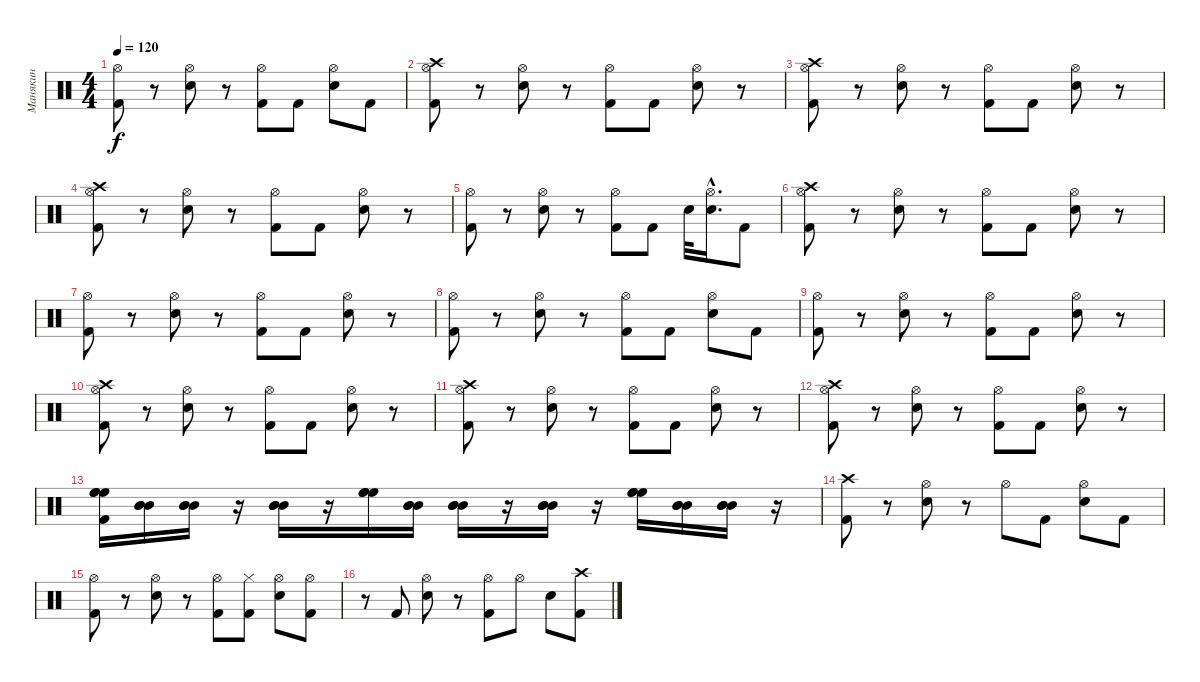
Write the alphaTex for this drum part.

\track ("Манякин" "Манякин") {instrument percussion}
\staff {score}
\articulation defaults
\ts (4 4)
\tempo 120
\clef neutral
\ks c
("Hi-Hat (open)" "Kick (hit) 2").8{dy f} r.8 ("Hi-Hat (open)" "Electric Snare (hit)").8 r.8 ("Hi-Hat (open)" "Kick (hit) 2").8 "Kick (hit) 2".8 ("Hi-Hat (open)" "Electric Snare (hit)").8 "Kick (hit) 2".8 |
("Crash high (hit)" "Hi-Hat (open)" "Kick (hit) 2").8 r.8 ("Hi-Hat (open)" "Electric Snare (hit)").8 r.8 ("Hi-Hat (open)" "Kick (hit) 2").8 "Kick (hit) 2".8 ("Hi-Hat (open)" "Electric Snare (hit)").8 r.8 |
("Crash high (hit)" "Hi-Hat (open)" "Kick (hit) 2").8 r.8 ("Hi-Hat (open)" "Electric Snare (hit)").8 r.8 ("Hi-Hat (open)" "Kick (hit) 2").8 "Kick (hit) 2".8 ("Hi-Hat (open)" "Electric Snare (hit)").8 r.8 |
("Crash high (hit)" "Hi-Hat (open)" "Kick (hit) 2").8 r.8 ("Hi-Hat (open)" "Electric Snare (hit)").8 r.8 ("Hi-Hat (open)" "Kick (hit) 2").8 "Kick (hit) 2".8 ("Hi-Hat (open)" "Electric Snare (hit)").8 r.8 |
("Hi-Hat (open)" "Kick (hit) 2").8 r.8 ("Hi-Hat (open)" "Electric Snare (hit)").8 r.8 ("Hi-Hat (open)" "Kick (hit) 2").8 "Kick (hit) 2".8 "Electric Snare (hit)".32 ("Hi-Hat (open)"{hac} "Electric Snare (hit)"{hac}).16{d} "Kick (hit) 2".8 |
("Crash high (hit)" "Hi-Hat (open)" "Kick (hit) 2").8 r.8 ("Hi-Hat (open)" "Electric Snare (hit)").8 r.8 ("Hi-Hat (open)" "Kick (hit) 2").8 "Kick (hit) 2".8 ("Hi-Hat (open)" "Electric Snare (hit)").8 r.8 |
("Hi-Hat (open)" "Kick (hit) 2").8 r.8 ("Hi-Hat (open)" "Electric Snare (hit)").8 r.8 ("Hi-Hat (open)" "Kick (hit) 2").8 "Kick (hit) 2".8 ("Hi-Hat (open)" "Electric Snare (hit)").8 r.8 |
("Hi-Hat (open)" "Kick (hit) 2").8 r.8 ("Hi-Hat (open)" "Electric Snare (hit)").8 r.8 ("Hi-Hat (open)" "Kick (hit) 2").8 "Kick (hit) 2".8 ("Hi-Hat (open)" "Electric Snare (hit)").8 "Kick (hit) 2".8 |
("Hi-Hat (open)" "Kick (hit) 2").8 r.8 ("Hi-Hat (open)" "Electric Snare (hit)").8 r.8 ("Hi-Hat (open)" "Kick (hit) 2").8 "Kick (hit) 2".8 ("Hi-Hat (open)" "Electric Snare (hit)").8 r.8 |
("Crash high (hit)" "Hi-Hat (open)" "Kick (hit) 2").8 r.8 ("Hi-Hat (open)" "Electric Snare (hit)").8 r.8 ("Hi-Hat (open)" "Kick (hit) 2").8 "Kick (hit) 2".8 ("Hi-Hat (open)" "Electric Snare (hit)").8 r.8 |
("Crash high (hit)" "Hi-Hat (open)" "Kick (hit) 2").8 r.8 ("Hi-Hat (open)" "Electric Snare (hit)").8 r.8 ("Hi-Hat (open)" "Kick (hit) 2").8 "Kick (hit) 2".8 ("Hi-Hat (open)" "Electric Snare (hit)").8 r.8 |
("Crash high (hit)" "Hi-Hat (open)" "Kick (hit) 2").8 r.8 ("Hi-Hat (open)" "Electric Snare (hit)").8 r.8 ("Hi-Hat (open)" "Kick (hit) 2").8 "Kick (hit) 2".8 ("Hi-Hat (open)" "Electric Snare (hit)").8 r.8 |
("High Floor Tom (hit)" "High Floor Tom (hit)" "High Floor Tom (hit)" "Kick (hit) 2").16 ("Mid Tom (hit)" "Mid Tom (hit)" "Mid Tom (hit)").16 ("Mid Tom (hit)" "Mid Tom (hit)" "Mid Tom (hit)").16 r.16 ("Mid Tom (hit)" "Mid Tom (hit)" "Mid Tom (hit)").16 r.16 ("High Floor Tom (hit)" "High Floor Tom (hit)" "High Floor Tom (hit)").16 ("Mid Tom (hit)" "Mid Tom (hit)" "Mid Tom (hit)").16 ("Mid Tom (hit)" "Mid Tom (hit)" "Mid Tom (hit)").16 r.16 ("Mid Tom (hit)" "Mid Tom (hit)" "Mid Tom (hit)").16 r.16 ("High Floor Tom (hit)" "High Floor Tom (hit)" "High Floor Tom (hit)").16 ("Mid Tom (hit)" "Mid Tom (hit)" "Mid Tom (hit)").16 ("Mid Tom (hit)" "Mid Tom (hit)" "Mid Tom (hit)").16 r.16 |
("Crash high (hit)" "Kick (hit) 2").8 r.8 ("Hi-Hat (open)" "Electric Snare (hit)").8 r.8 "Hi-Hat (open)".8 "Kick (hit) 2".8 ("Hi-Hat (open)" "Electric Snare (hit)").8 "Kick (hit) 2".8 |
("Hi-Hat (open)" "Kick (hit) 2").8 r.8 ("Hi-Hat (open)" "Electric Snare (hit)").8 r.8 ("Hi-Hat (open)" "Kick (hit) 2").8 ("Hi-Hat (closed)" "Kick (hit) 2").8 ("Hi-Hat (open)" "Electric Snare (hit)").8 ("Hi-Hat (open)" "Kick (hit) 2").8 |
r.8 "Kick (hit) 2".8 ("Hi-Hat (open)" "Electric Snare (hit)").8 r.8 ("Hi-Hat (open)" "Kick (hit) 2").8 "Hi-Hat (open)".8 "Electric Snare (hit)".8 ("Crash high (hit)" "Kick (hit) 2").8
